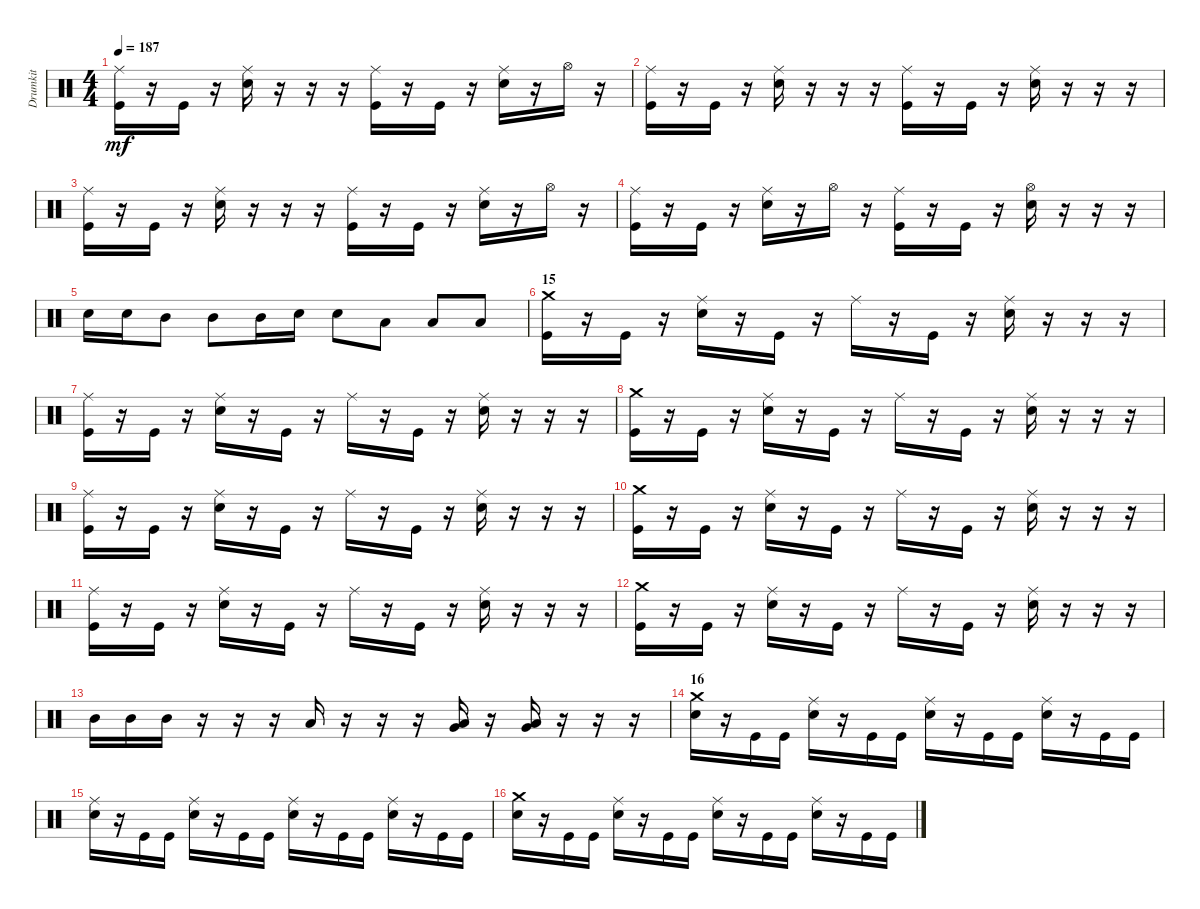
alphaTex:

\track ("Drumkit" "Drumkit") {instrument percussion}
\staff {score}
\articulation defaults
\ts (4 4)
\tempo 187
\clef neutral
\ks c
("Kick (hit)" "Ride (middle)").16{dy mf} r.16 "Kick (hit)".16 r.16 ("Snare (hit) 2" "Ride (middle)").16 r.16 r.16 r.16 ("Kick (hit)" "Ride (middle)").16 r.16 "Kick (hit)".16 r.16 ("Snare (hit) 2" "Ride (middle)").16 r.16 "Hi-Hat (open)".16 r.16 |
("Kick (hit)" "Ride (middle)").16 r.16 "Kick (hit)".16 r.16 ("Snare (hit) 2" "Ride (middle)").16 r.16 r.16 r.16 ("Kick (hit)" "Ride (middle)").16 r.16 "Kick (hit)".16 r.16 ("Snare (hit) 2" "Ride (middle)").16 r.16 r.16 r.16 |
("Kick (hit)" "Ride (middle)").16 r.16 "Kick (hit)".16 r.16 ("Snare (hit) 2" "Ride (middle)").16 r.16 r.16 r.16 ("Kick (hit)" "Ride (middle)").16 r.16 "Kick (hit)".16 r.16 ("Snare (hit) 2" "Ride (middle)").16 r.16 "Hi-Hat (open)".16 r.16 |
("Kick (hit)" "Ride (middle)").16 r.16 "Kick (hit)".16 r.16 ("Snare (hit) 2" "Ride (middle)").16 r.16 "Hi-Hat (open)".16 r.16 ("Kick (hit)" "Ride (middle)").16 r.16 "Kick (hit)".16 r.16 ("Snare (hit) 2" "Hi-Hat (open)").16 r.16 r.16 r.16 |
"Snare (hit) 2".16 "Snare (hit) 2".16 "Mid Tom (hit)".8 "Mid Tom (hit)".8 "Mid Tom (hit)".16 "Snare (hit) 2".16 "Snare (hit) 2".8 "Low Tom (hit)".8 "Low Tom (hit)".8 "Low Tom (hit)".8 |
\section ("" "15")
("Kick (hit)" "Crash medium (hit)").16 r.16 "Kick (hit)".16 r.16 ("Snare (hit) 2" "Ride (middle)").16 r.16 "Kick (hit)".16 r.16 "Ride (middle)".16 r.16 "Kick (hit)".16 r.16 ("Snare (hit) 2" "Ride (middle)").16 r.16 r.16 r.16 |
("Kick (hit)" "Ride (middle)").16 r.16 "Kick (hit)".16 r.16 ("Snare (hit) 2" "Ride (middle)").16 r.16 "Kick (hit)".16 r.16 "Ride (middle)".16 r.16 "Kick (hit)".16 r.16 ("Snare (hit) 2" "Ride (middle)").16 r.16 r.16 r.16 |
("Kick (hit)" "Crash medium (hit)").16 r.16 "Kick (hit)".16 r.16 ("Snare (hit) 2" "Ride (middle)").16 r.16 "Kick (hit)".16 r.16 "Ride (middle)".16 r.16 "Kick (hit)".16 r.16 ("Snare (hit) 2" "Ride (middle)").16 r.16 r.16 r.16 |
("Kick (hit)" "Ride (middle)").16 r.16 "Kick (hit)".16 r.16 ("Snare (hit) 2" "Ride (middle)").16 r.16 "Kick (hit)".16 r.16 "Ride (middle)".16 r.16 "Kick (hit)".16 r.16 ("Snare (hit) 2" "Ride (middle)").16 r.16 r.16 r.16 |
("Kick (hit)" "Crash medium (hit)").16 r.16 "Kick (hit)".16 r.16 ("Snare (hit) 2" "Ride (middle)").16 r.16 "Kick (hit)".16 r.16 "Ride (middle)".16 r.16 "Kick (hit)".16 r.16 ("Snare (hit) 2" "Ride (middle)").16 r.16 r.16 r.16 |
("Kick (hit)" "Ride (middle)").16 r.16 "Kick (hit)".16 r.16 ("Snare (hit) 2" "Ride (middle)").16 r.16 "Kick (hit)".16 r.16 "Ride (middle)".16 r.16 "Kick (hit)".16 r.16 ("Snare (hit) 2" "Ride (middle)").16 r.16 r.16 r.16 |
("Kick (hit)" "Crash medium (hit)").16 r.16 "Kick (hit)".16 r.16 ("Snare (hit) 2" "Ride (middle)").16 r.16 "Kick (hit)".16 r.16 "Ride (middle)".16 r.16 "Kick (hit)".16 r.16 ("Snare (hit) 2" "Ride (middle)").16 r.16 r.16 r.16 |
"Mid Tom (hit)".16 "Mid Tom (hit)".16 "Mid Tom (hit)".16 r.16 r.16 r.16 "Low Tom (hit)".16 r.16 r.16 r.16 ("Very Low Tom (hit)" "Low Tom (hit)").16 r.16 ("Very Low Tom (hit)" "Low Tom (hit)").16 r.16 r.16 r.16 |
\section ("" "16")
("Snare (hit) 2" "Crash medium (hit)").16 r.16 "Kick (hit)".16 "Kick (hit)".16 ("Snare (hit) 2" "Ride (middle)").16 r.16 "Kick (hit)".16 "Kick (hit)".16 ("Snare (hit) 2" "Ride (middle)").16 r.16 "Kick (hit)".16 "Kick (hit)".16 ("Snare (hit) 2" "Ride (middle)").16 r.16 "Kick (hit)".16 "Kick (hit)".16 |
("Snare (hit) 2" "Ride (middle)").16 r.16 "Kick (hit)".16 "Kick (hit)".16 ("Snare (hit) 2" "Ride (middle)").16 r.16 "Kick (hit)".16 "Kick (hit)".16 ("Snare (hit) 2" "Ride (middle)").16 r.16 "Kick (hit)".16 "Kick (hit)".16 ("Snare (hit) 2" "Ride (middle)").16 r.16 "Kick (hit)".16 "Kick (hit)".16 |
("Snare (hit) 2" "Crash medium (hit)").16 r.16 "Kick (hit)".16 "Kick (hit)".16 ("Snare (hit) 2" "Ride (middle)").16 r.16 "Kick (hit)".16 "Kick (hit)".16 ("Snare (hit) 2" "Ride (middle)").16 r.16 "Kick (hit)".16 "Kick (hit)".16 ("Snare (hit) 2" "Ride (middle)").16 r.16 "Kick (hit)".16 "Kick (hit)".16
